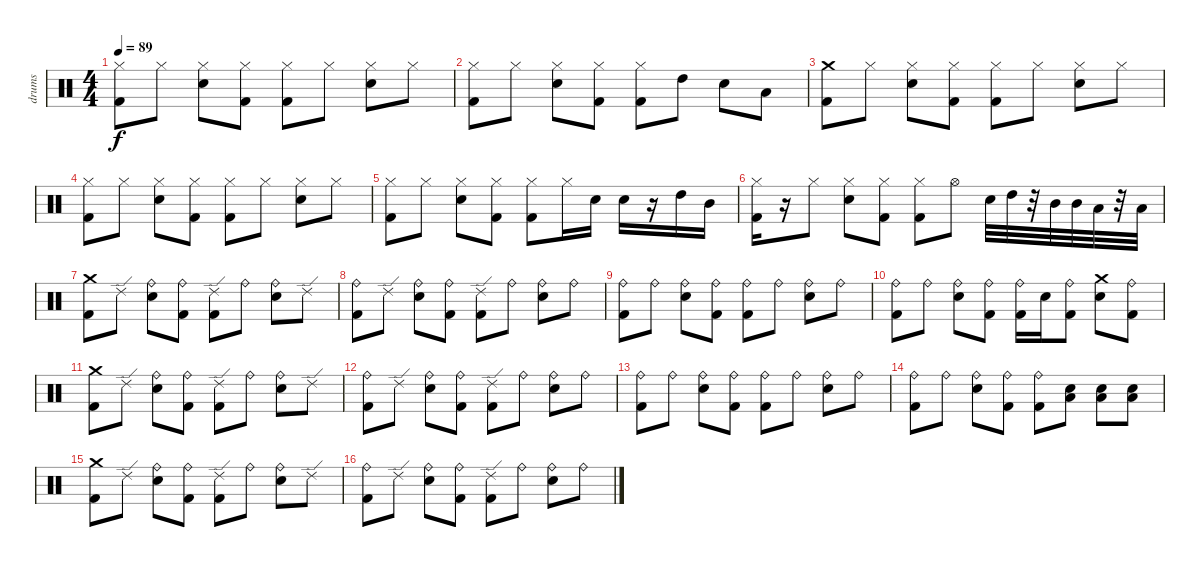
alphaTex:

\track ("drums" "drums") {instrument percussion}
\staff {score}
\articulation defaults
\ts (4 4)
\tempo 89
\clef neutral
\ks c
("Kick (hit) 2" "Hi-Hat (closed)").8{dy f} "Hi-Hat (closed)".8 ("Snare (hit) 2" "Hi-Hat (closed)").8 ("Kick (hit) 2" "Hi-Hat (closed)").8 ("Kick (hit) 2" "Hi-Hat (closed)").8 "Hi-Hat (closed)".8 ("Snare (hit) 2" "Hi-Hat (closed)").8 "Hi-Hat (closed)".8 |
("Kick (hit) 2" "Hi-Hat (closed)").8 "Hi-Hat (closed)".8 ("Snare (hit) 2" "Hi-Hat (closed)").8 ("Kick (hit) 2" "Hi-Hat (closed)").8 ("Kick (hit) 2" "Hi-Hat (closed)").8 "High Tom (hit)".8 "Snare (hit) 2".8 "Low Tom (hit)".8 |
("Kick (hit) 2" "Crash medium (hit)").8 "Hi-Hat (closed)".8 ("Snare (hit) 2" "Hi-Hat (closed)").8 ("Kick (hit) 2" "Hi-Hat (closed)").8 ("Kick (hit) 2" "Hi-Hat (closed)").8 "Hi-Hat (closed)".8 ("Snare (hit) 2" "Hi-Hat (closed)").8 "Hi-Hat (closed)".8 |
("Kick (hit) 2" "Hi-Hat (closed)").8 "Hi-Hat (closed)".8 ("Snare (hit) 2" "Hi-Hat (closed)").8 ("Kick (hit) 2" "Hi-Hat (closed)").8 ("Kick (hit) 2" "Hi-Hat (closed)").8 "Hi-Hat (closed)".8 ("Snare (hit) 2" "Hi-Hat (closed)").8 "Hi-Hat (closed)".8 |
("Kick (hit) 2" "Hi-Hat (closed)").8 "Hi-Hat (closed)".8 ("Snare (hit) 2" "Hi-Hat (closed)").8 ("Kick (hit) 2" "Hi-Hat (closed)").8 ("Kick (hit) 2" "Hi-Hat (closed)").8 "Hi-Hat (closed)".16 "Snare (hit) 2".16 "Snare (hit) 2".16 r.16 "High Tom (hit)".16 "Mid Tom (hit)".16 |
("Kick (hit) 2" "Hi-Hat (closed)").16 r.16 "Hi-Hat (closed)".8 ("Snare (hit) 2" "Hi-Hat (closed)").8 ("Kick (hit) 2" "Hi-Hat (closed)").8 ("Kick (hit) 2" "Hi-Hat (closed)").8 "Hi-Hat (open)".8 "Snare (hit) 2".32 "High Tom (hit)".32 r.32 "Mid Tom (hit)".32 "Mid Tom (hit)".32 "Low Tom (hit)".32 r.32 "Low Tom (hit)".32 |
("Kick (hit) 2" "Crash medium (hit)").8 "Ride (edge) 2".8 ("Snare (hit) 2" "Ride (bell)").8 ("Kick (hit) 2" "Ride (bell)").8 ("Kick (hit) 2" "Ride (edge) 2").8 "Ride (bell)".8 ("Snare (hit) 2" "Ride (bell)").8 "Ride (edge) 2".8 |
("Kick (hit) 2" "Ride (bell)").8 "Ride (edge) 2".8 ("Snare (hit) 2" "Ride (bell)").8 ("Kick (hit) 2" "Ride (bell)").8 ("Kick (hit) 2" "Ride (edge) 2").8 "Ride (bell)".8 ("Snare (hit) 2" "Ride (bell)").8 "Ride (bell)".8 |
("Kick (hit) 2" "Ride (bell)").8 "Ride (bell)".8 ("Snare (hit) 2" "Ride (bell)").8 ("Kick (hit) 2" "Ride (bell)").8 ("Kick (hit) 2" "Ride (bell)").8 "Ride (bell)".8 ("Snare (hit) 2" "Ride (bell)").8 "Ride (bell)".8 |
("Kick (hit) 2" "Ride (bell)").8 "Ride (bell)".8 ("Snare (hit) 2" "Ride (bell)").8 ("Kick (hit) 2" "Ride (bell)").8 ("Kick (hit) 2" "Ride (bell)").16 "Snare (hit) 2".16 ("Kick (hit) 2" "Ride (bell)").8 ("Crash medium (hit)" "Snare (hit) 2").8 ("Kick (hit) 2" "Ride (bell)").8 |
("Kick (hit) 2" "Crash medium (hit)").8 "Ride (edge) 2".8 ("Snare (hit) 2" "Ride (bell)").8 ("Kick (hit) 2" "Ride (bell)").8 ("Kick (hit) 2" "Ride (edge) 2").8 "Ride (bell)".8 ("Snare (hit) 2" "Ride (bell)").8 "Ride (edge) 2".8 |
("Kick (hit) 2" "Ride (bell)").8 "Ride (edge) 2".8 ("Snare (hit) 2" "Ride (bell)").8 ("Kick (hit) 2" "Ride (bell)").8 ("Kick (hit) 2" "Ride (edge) 2").8 "Ride (bell)".8 ("Snare (hit) 2" "Ride (bell)").8 "Ride (bell)".8 |
("Kick (hit) 2" "Ride (bell)").8 "Ride (bell)".8 ("Snare (hit) 2" "Ride (bell)").8 ("Kick (hit) 2" "Ride (bell)").8 ("Kick (hit) 2" "Ride (bell)").8 "Ride (bell)".8 ("Snare (hit) 2" "Ride (bell)").8 "Ride (bell)".8 |
("Kick (hit) 2" "Ride (bell)").8 "Ride (bell)".8 ("Snare (hit) 2" "Ride (bell)").8 ("Kick (hit) 2" "Ride (bell)").8 ("Kick (hit) 2" "Ride (bell)").8 ("Low Tom (hit)" "Snare (hit) 2").8 ("Low Tom (hit)" "Snare (hit) 2").8 ("Low Tom (hit)" "Snare (hit) 2").8 |
("Kick (hit) 2" "Crash medium (hit)").8 "Ride (edge) 2".8 ("Snare (hit) 2" "Ride (bell)").8 ("Kick (hit) 2" "Ride (bell)").8 ("Kick (hit) 2" "Ride (edge) 2").8 "Ride (bell)".8 ("Snare (hit) 2" "Ride (bell)").8 "Ride (edge) 2".8 |
("Kick (hit) 2" "Ride (bell)").8 "Ride (edge) 2".8 ("Snare (hit) 2" "Ride (bell)").8 ("Kick (hit) 2" "Ride (bell)").8 ("Kick (hit) 2" "Ride (edge) 2").8 "Ride (bell)".8 ("Snare (hit) 2" "Ride (bell)").8 "Ride (bell)".8
